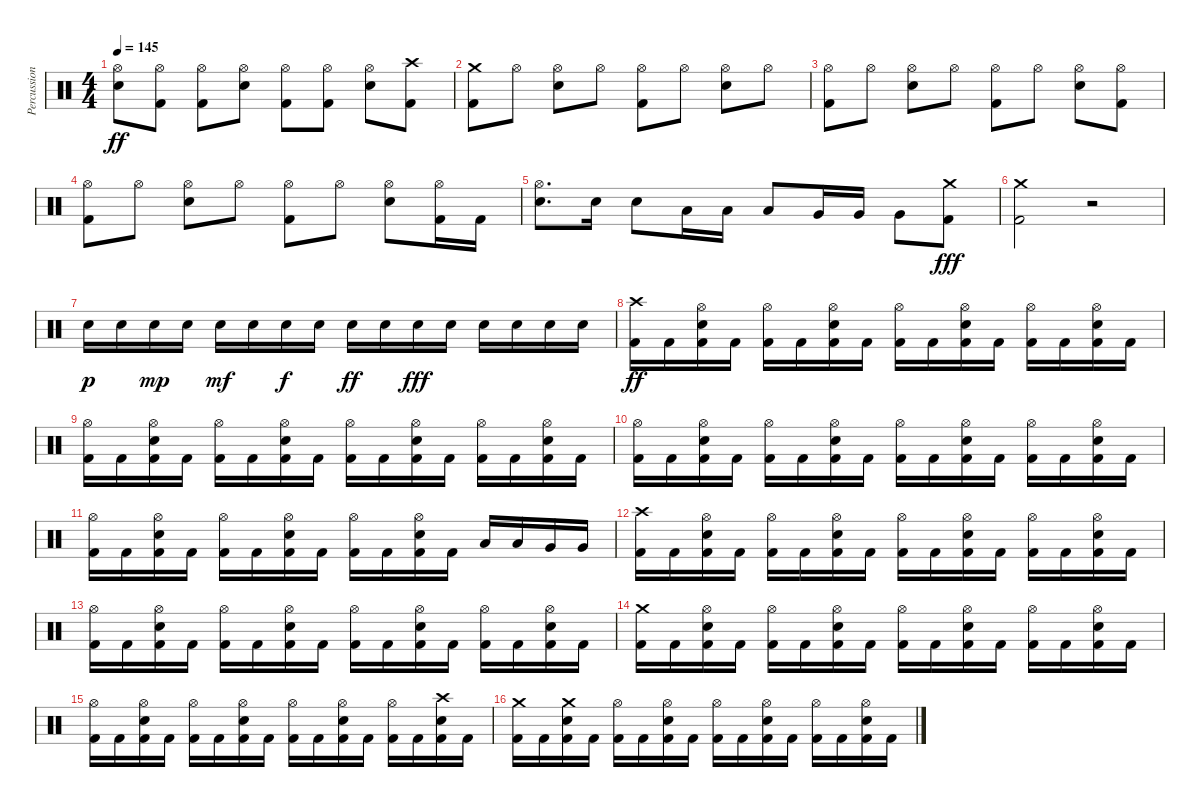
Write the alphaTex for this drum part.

\track ("Percussion" "Percussion") {instrument percussion}
\staff {score}
\articulation defaults
\ts (4 4)
\tempo 145
\clef neutral
\ks c
("Hi-Hat (open)" "Electric Snare (hit)").8{dy ff} ("Hi-Hat (open)" "Kick (hit) 2").8 ("Hi-Hat (open)" "Kick (hit) 2").8 ("Hi-Hat (open)" "Electric Snare (hit)").8 ("Hi-Hat (open)" "Kick (hit) 2").8 ("Hi-Hat (open)" "Kick (hit) 2").8 ("Hi-Hat (open)" "Electric Snare (hit)").8 ("Crash high (hit)" "Kick (hit) 2").8 |
("Crash medium (hit)" "Kick (hit) 2").8 "Hi-Hat (open)".8 ("Hi-Hat (open)" "Electric Snare (hit)").8 "Hi-Hat (open)".8 ("Hi-Hat (open)" "Kick (hit) 2").8 "Hi-Hat (open)".8 ("Hi-Hat (open)" "Electric Snare (hit)").8 "Hi-Hat (open)".8 |
("Hi-Hat (open)" "Kick (hit) 2").8 "Hi-Hat (open)".8 ("Hi-Hat (open)" "Electric Snare (hit)").8 "Hi-Hat (open)".8 ("Hi-Hat (open)" "Kick (hit) 2").8 "Hi-Hat (open)".8 ("Hi-Hat (open)" "Electric Snare (hit)").8 ("Hi-Hat (open)" "Kick (hit) 2").8 |
("Hi-Hat (open)" "Kick (hit) 2").8 "Hi-Hat (open)".8 ("Hi-Hat (open)" "Electric Snare (hit)").8 "Hi-Hat (open)".8 ("Hi-Hat (open)" "Kick (hit) 2").8 "Hi-Hat (open)".8 ("Hi-Hat (open)" "Electric Snare (hit)").8 ("Hi-Hat (open)" "Kick (hit) 2").16 "Kick (hit) 2".16 |
("Hi-Hat (open)" "Electric Snare (hit)").8{d} "Electric Snare (hit)".16 "Electric Snare (hit)".8 "Low Tom (hit)".16 "Low Tom (hit)".16 "Low Tom (hit)".8 "Very Low Tom (hit)".16 "Very Low Tom (hit)".16 "Very Low Tom (hit)".8 ("Crash medium (hit)" "Kick (hit) 2").8{dy fff} |
("Crash medium (hit)" "Kick (hit) 2").2 r.2 |
"Snare (hit) 2".16{dy p} "Snare (hit) 2".16 "Snare (hit) 2".16{dy mp} "Snare (hit) 2".16 "Snare (hit) 2".16{dy mf} "Snare (hit) 2".16 "Snare (hit) 2".16{dy f} "Snare (hit) 2".16 "Snare (hit) 2".16{dy ff} "Snare (hit) 2".16 "Snare (hit) 2".16{dy fff} "Snare (hit) 2".16 "Snare (hit) 2".16 "Snare (hit) 2".16 "Snare (hit) 2".16 "Snare (hit) 2".16 |
("Crash high (hit)" "Kick (hit) 2").16{dy ff} "Kick (hit) 2".16 ("Electric Snare (hit)" "Hi-Hat (open)" "Kick (hit) 2").16 "Kick (hit) 2".16 ("Hi-Hat (open)" "Kick (hit) 2").16 "Kick (hit) 2".16 ("Electric Snare (hit)" "Hi-Hat (open)" "Kick (hit) 2").16 "Kick (hit) 2".16 ("Hi-Hat (open)" "Kick (hit) 2").16 "Kick (hit) 2".16 ("Electric Snare (hit)" "Hi-Hat (open)" "Kick (hit) 2").16 "Kick (hit) 2".16 ("Hi-Hat (open)" "Kick (hit) 2").16 "Kick (hit) 2".16 ("Electric Snare (hit)" "Hi-Hat (open)" "Kick (hit) 2").16 "Kick (hit) 2".16 |
("Hi-Hat (open)" "Kick (hit) 2").16 "Kick (hit) 2".16 ("Electric Snare (hit)" "Hi-Hat (open)" "Kick (hit) 2").16 "Kick (hit) 2".16 ("Hi-Hat (open)" "Kick (hit) 2").16 "Kick (hit) 2".16 ("Electric Snare (hit)" "Hi-Hat (open)" "Kick (hit) 2").16 "Kick (hit) 2".16 ("Hi-Hat (open)" "Kick (hit) 2").16 "Kick (hit) 2".16 ("Electric Snare (hit)" "Hi-Hat (open)" "Kick (hit) 2").16 "Kick (hit) 2".16 ("Hi-Hat (open)" "Kick (hit) 2").16 "Kick (hit) 2".16 ("Electric Snare (hit)" "Hi-Hat (open)" "Kick (hit) 2").16 "Kick (hit) 2".16 |
("Hi-Hat (open)" "Kick (hit) 2").16 "Kick (hit) 2".16 ("Electric Snare (hit)" "Hi-Hat (open)" "Kick (hit) 2").16 "Kick (hit) 2".16 ("Hi-Hat (open)" "Kick (hit) 2").16 "Kick (hit) 2".16 ("Electric Snare (hit)" "Hi-Hat (open)" "Kick (hit) 2").16 "Kick (hit) 2".16 ("Hi-Hat (open)" "Kick (hit) 2").16 "Kick (hit) 2".16 ("Electric Snare (hit)" "Hi-Hat (open)" "Kick (hit) 2").16 "Kick (hit) 2".16 ("Hi-Hat (open)" "Kick (hit) 2").16 "Kick (hit) 2".16 ("Electric Snare (hit)" "Hi-Hat (open)" "Kick (hit) 2").16 "Kick (hit) 2".16 |
("Hi-Hat (open)" "Kick (hit) 2").16 "Kick (hit) 2".16 ("Electric Snare (hit)" "Hi-Hat (open)" "Kick (hit) 2").16 "Kick (hit) 2".16 ("Hi-Hat (open)" "Kick (hit) 2").16 "Kick (hit) 2".16 ("Electric Snare (hit)" "Hi-Hat (open)" "Kick (hit) 2").16 "Kick (hit) 2".16 ("Hi-Hat (open)" "Kick (hit) 2").16 "Kick (hit) 2".16 ("Electric Snare (hit)" "Hi-Hat (open)" "Kick (hit) 2").16 "Kick (hit) 2".16 "Low Tom (hit)".16 "Low Tom (hit)".16 "Very Low Tom (hit)".16 "Very Low Tom (hit)".16 |
("Crash high (hit)" "Kick (hit) 2").16 "Kick (hit) 2".16 ("Electric Snare (hit)" "Hi-Hat (open)" "Kick (hit) 2").16 "Kick (hit) 2".16 ("Hi-Hat (open)" "Kick (hit) 2").16 "Kick (hit) 2".16 ("Electric Snare (hit)" "Hi-Hat (open)" "Kick (hit) 2").16 "Kick (hit) 2".16 ("Hi-Hat (open)" "Kick (hit) 2").16 "Kick (hit) 2".16 ("Electric Snare (hit)" "Hi-Hat (open)" "Kick (hit) 2").16 "Kick (hit) 2".16 ("Hi-Hat (open)" "Kick (hit) 2").16 "Kick (hit) 2".16 ("Electric Snare (hit)" "Hi-Hat (open)" "Kick (hit) 2").16 "Kick (hit) 2".16 |
("Hi-Hat (open)" "Kick (hit) 2").16 "Kick (hit) 2".16 ("Electric Snare (hit)" "Hi-Hat (open)" "Kick (hit) 2").16 "Kick (hit) 2".16 ("Hi-Hat (open)" "Kick (hit) 2").16 "Kick (hit) 2".16 ("Electric Snare (hit)" "Hi-Hat (open)" "Kick (hit) 2").16 "Kick (hit) 2".16 ("Hi-Hat (open)" "Kick (hit) 2").16 "Kick (hit) 2".16 ("Electric Snare (hit)" "Hi-Hat (open)" "Kick (hit) 2").16 "Kick (hit) 2".16 ("Hi-Hat (open)" "Kick (hit) 2").16 "Kick (hit) 2".16 ("Electric Snare (hit)" "Hi-Hat (open)" "Kick (hit) 2").16 "Kick (hit) 2".16 |
("Crash medium (hit)" "Kick (hit) 2").16 "Kick (hit) 2".16 ("Electric Snare (hit)" "Hi-Hat (open)" "Kick (hit) 2").16 "Kick (hit) 2".16 ("Hi-Hat (open)" "Kick (hit) 2").16 "Kick (hit) 2".16 ("Electric Snare (hit)" "Hi-Hat (open)" "Kick (hit) 2").16 "Kick (hit) 2".16 ("Hi-Hat (open)" "Kick (hit) 2").16 "Kick (hit) 2".16 ("Electric Snare (hit)" "Hi-Hat (open)" "Kick (hit) 2").16 "Kick (hit) 2".16 ("Hi-Hat (open)" "Kick (hit) 2").16 "Kick (hit) 2".16 ("Electric Snare (hit)" "Hi-Hat (open)" "Kick (hit) 2").16 "Kick (hit) 2".16 |
("Hi-Hat (open)" "Kick (hit) 2").16 "Kick (hit) 2".16 ("Electric Snare (hit)" "Hi-Hat (open)" "Kick (hit) 2").16 "Kick (hit) 2".16 ("Hi-Hat (open)" "Kick (hit) 2").16 "Kick (hit) 2".16 ("Electric Snare (hit)" "Hi-Hat (open)" "Kick (hit) 2").16 "Kick (hit) 2".16 ("Hi-Hat (open)" "Kick (hit) 2").16 "Kick (hit) 2".16 ("Electric Snare (hit)" "Hi-Hat (open)" "Kick (hit) 2").16 "Kick (hit) 2".16 ("Hi-Hat (open)" "Kick (hit) 2").16 "Kick (hit) 2".16 ("Electric Snare (hit)" "Crash high (hit)" "Kick (hit) 2").16 "Kick (hit) 2".16 |
("Crash medium (hit)" "Kick (hit) 2").16 "Kick (hit) 2".16 ("Electric Snare (hit)" "Crash medium (hit)" "Kick (hit) 2").16 "Kick (hit) 2".16 ("Hi-Hat (open)" "Kick (hit) 2").16 "Kick (hit) 2".16 ("Electric Snare (hit)" "Hi-Hat (open)" "Kick (hit) 2").16 "Kick (hit) 2".16 ("Hi-Hat (open)" "Kick (hit) 2").16 "Kick (hit) 2".16 ("Electric Snare (hit)" "Hi-Hat (open)" "Kick (hit) 2").16 "Kick (hit) 2".16 ("Hi-Hat (open)" "Kick (hit) 2").16 "Kick (hit) 2".16 ("Electric Snare (hit)" "Hi-Hat (open)" "Kick (hit) 2").16 "Kick (hit) 2".16
